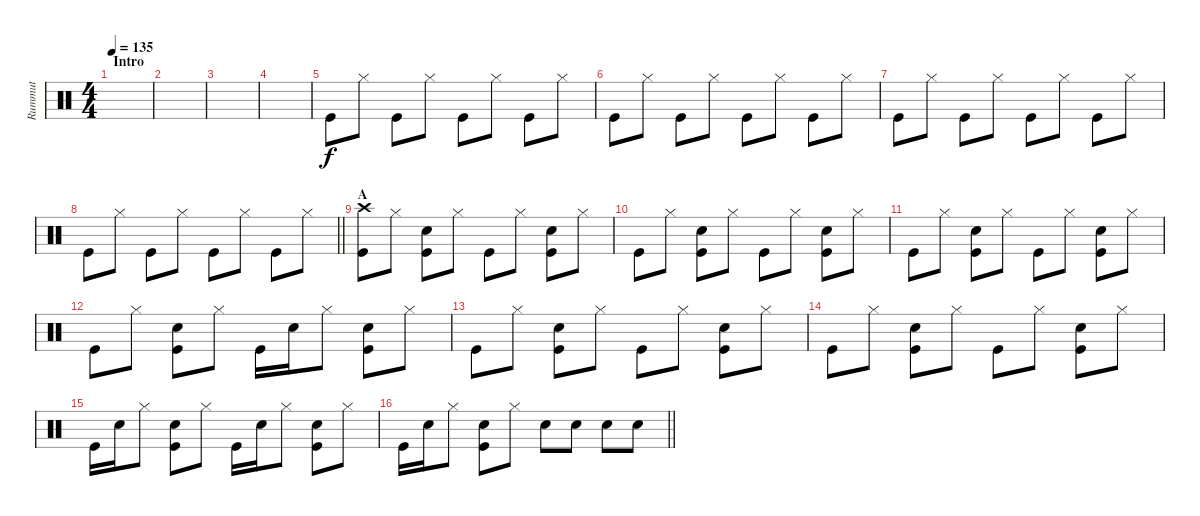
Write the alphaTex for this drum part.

\track ("Rummut" "Rummut") {instrument percussion}
\staff {score}
\articulation defaults
\ts (4 4)
\section ("" "Intro")
\tempo 135
\clef neutral
\ks c
|
|
|
|
"Kick (hit)".8 "Hi-Hat (closed)".8 "Kick (hit)".8 "Hi-Hat (closed)".8 "Kick (hit)".8 "Hi-Hat (closed)".8 "Kick (hit)".8 "Hi-Hat (closed)".8 |
"Kick (hit)".8 "Hi-Hat (closed)".8 "Kick (hit)".8 "Hi-Hat (closed)".8 "Kick (hit)".8 "Hi-Hat (closed)".8 "Kick (hit)".8 "Hi-Hat (closed)".8 |
"Kick (hit)".8 "Hi-Hat (closed)".8 "Kick (hit)".8 "Hi-Hat (closed)".8 "Kick (hit)".8 "Hi-Hat (closed)".8 "Kick (hit)".8 "Hi-Hat (closed)".8 |
\barLineRight lightlight "Kick (hit)".8 "Hi-Hat (closed)".8 "Kick (hit)".8 "Hi-Hat (closed)".8 "Kick (hit)".8 "Hi-Hat (closed)".8 "Kick (hit)".8 "Hi-Hat (closed)".8
|
\section ("" "A")
("Crash high (hit)" "Kick (hit)").8 "Hi-Hat (closed)".8 ("Electric Snare (hit)" "Kick (hit)").8 "Hi-Hat (closed)".8 "Kick (hit)".8 "Hi-Hat (closed)".8 ("Electric Snare (hit)" "Kick (hit)").8 "Hi-Hat (closed)".8 |
"Kick (hit)".8 "Hi-Hat (closed)".8 ("Electric Snare (hit)" "Kick (hit)").8 "Hi-Hat (closed)".8 "Kick (hit)".8 "Hi-Hat (closed)".8 ("Electric Snare (hit)" "Kick (hit)").8 "Hi-Hat (closed)".8 |
"Kick (hit)".8 "Hi-Hat (closed)".8 ("Electric Snare (hit)" "Kick (hit)").8 "Hi-Hat (closed)".8 "Kick (hit)".8 "Hi-Hat (closed)".8 ("Electric Snare (hit)" "Kick (hit)").8 "Hi-Hat (closed)".8 |
"Kick (hit)".8 "Hi-Hat (closed)".8 ("Electric Snare (hit)" "Kick (hit)").8 "Hi-Hat (closed)".8 "Kick (hit)".16 "Electric Snare (hit)".16 "Hi-Hat (closed)".8 ("Electric Snare (hit)" "Kick (hit)").8 "Hi-Hat (closed)".8 |
"Kick (hit)".8 "Hi-Hat (closed)".8 ("Electric Snare (hit)" "Kick (hit)").8 "Hi-Hat (closed)".8 "Kick (hit)".8 "Hi-Hat (closed)".8 ("Electric Snare (hit)" "Kick (hit)").8 "Hi-Hat (closed)".8 |
"Kick (hit)".8 "Hi-Hat (closed)".8 ("Electric Snare (hit)" "Kick (hit)").8 "Hi-Hat (closed)".8 "Kick (hit)".8 "Hi-Hat (closed)".8 ("Electric Snare (hit)" "Kick (hit)").8 "Hi-Hat (closed)".8 |
"Kick (hit)".16 "Electric Snare (hit)".16 "Hi-Hat (closed)".8 ("Electric Snare (hit)" "Kick (hit)").8 "Hi-Hat (closed)".8 "Kick (hit)".16 "Electric Snare (hit)".16 "Hi-Hat (closed)".8 ("Electric Snare (hit)" "Kick (hit)").8 "Hi-Hat (closed)".8 |
\barLineRight lightlight "Kick (hit)".16 "Electric Snare (hit)".16 "Hi-Hat (closed)".8
("Electric Snare (hit)" "Kick (hit)").8 "Hi-Hat (closed)".8 "Electric Snare (hit)".8 "Electric Snare (hit)".8 "Electric Snare (hit)".8 "Electric Snare (hit)".8
